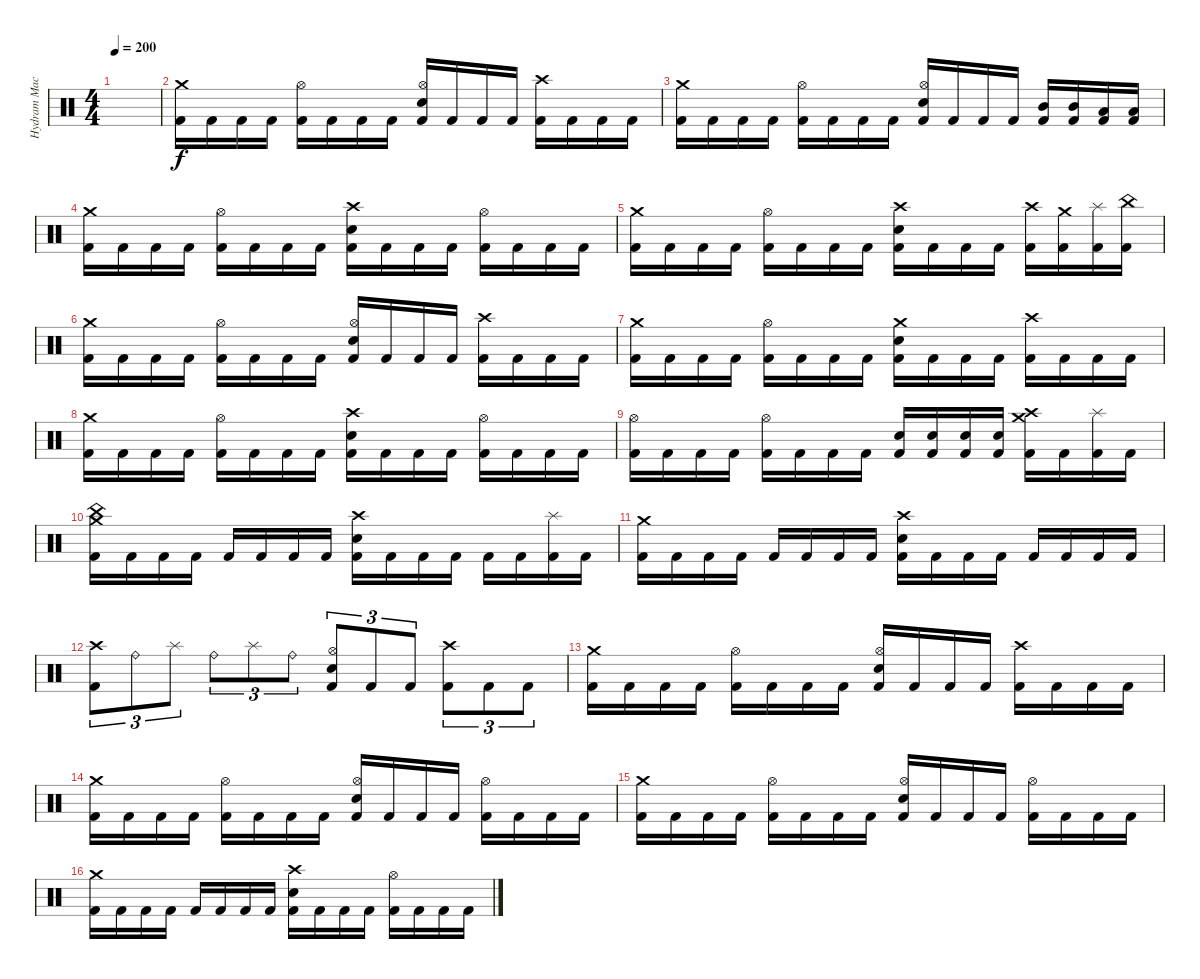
\track ("Hydram Machine" "Hydram Mac") {instrument percussion}
\staff {score}
\articulation defaults
\ts (4 4)
\tempo 200
\clef neutral
\ks c
|
("Crash medium (hit)" "Kick (hit) 2").16 "Kick (hit) 2".16 "Kick (hit) 2".16 "Kick (hit) 2".16 ("Hi-Hat (open)" "Kick (hit) 2").16 "Kick (hit) 2".16 "Kick (hit) 2".16 "Kick (hit) 2".16 ("Hi-Hat (open)" "Electric Snare (hit)" "Kick (hit) 2").16 "Kick (hit) 2".16 "Kick (hit) 2".16 "Kick (hit) 2".16 ("Crash high (hit)" "Kick (hit) 2").16 "Kick (hit) 2".16 "Kick (hit) 2".16 "Kick (hit) 2".16 |
("Crash medium (hit)" "Kick (hit) 2").16 "Kick (hit) 2".16 "Kick (hit) 2".16 "Kick (hit) 2".16 ("Hi-Hat (open)" "Kick (hit) 2").16 "Kick (hit) 2".16 "Kick (hit) 2".16 "Kick (hit) 2".16 ("Hi-Hat (open)" "Electric Snare (hit)" "Kick (hit) 2").16 "Kick (hit) 2".16 "Kick (hit) 2".16 "Kick (hit) 2".16 ("Mid Tom (hit)" "Kick (hit) 2").16 ("Mid Tom (hit)" "Kick (hit) 2").16 ("Low Tom (hit)" "Kick (hit) 2").16 ("Low Tom (hit)" "Kick (hit) 2").16 |
("Crash medium (hit)" "Kick (hit) 2").16 "Kick (hit) 2".16 "Kick (hit) 2".16 "Kick (hit) 2".16 ("Hi-Hat (open)" "Kick (hit) 2").16 "Kick (hit) 2".16 "Kick (hit) 2".16 "Kick (hit) 2".16 ("Crash high (hit)" "Electric Snare (hit)" "Kick (hit) 2").16 "Kick (hit) 2".16 "Kick (hit) 2".16 "Kick (hit) 2".16 ("Hi-Hat (open)" "Kick (hit) 2").16 "Kick (hit) 2".16 "Kick (hit) 2".16 "Kick (hit) 2".16 |
("Crash medium (hit)" "Kick (hit) 2").16 "Kick (hit) 2".16 "Kick (hit) 2".16 "Kick (hit) 2".16 ("Hi-Hat (open)" "Kick (hit) 2").16 "Kick (hit) 2".16 "Kick (hit) 2".16 "Kick (hit) 2".16 ("Crash high (hit)" "Electric Snare (hit)" "Kick (hit) 2").16 "Kick (hit) 2".16 "Kick (hit) 2".16 "Kick (hit) 2".16 ("Crash high (hit)" "Kick (hit) 2").16 ("Crash medium (hit)" "Kick (hit) 2").16 ("Splash (hit)" "Kick (hit) 2").16 ("China (hit)" "Kick (hit) 2").16 |
("Crash medium (hit)" "Kick (hit) 2").16 "Kick (hit) 2".16 "Kick (hit) 2".16 "Kick (hit) 2".16 ("Hi-Hat (open)" "Kick (hit) 2").16 "Kick (hit) 2".16 "Kick (hit) 2".16 "Kick (hit) 2".16 ("Hi-Hat (open)" "Electric Snare (hit)" "Kick (hit) 2").16 "Kick (hit) 2".16 "Kick (hit) 2".16 "Kick (hit) 2".16 ("Crash high (hit)" "Kick (hit) 2").16 "Kick (hit) 2".16 "Kick (hit) 2".16 "Kick (hit) 2".16 |
("Crash medium (hit)" "Kick (hit) 2").16 "Kick (hit) 2".16 "Kick (hit) 2".16 "Kick (hit) 2".16 ("Hi-Hat (open)" "Kick (hit) 2").16 "Kick (hit) 2".16 "Kick (hit) 2".16 "Kick (hit) 2".16 ("Crash medium (hit)" "Electric Snare (hit)" "Kick (hit) 2").16 "Kick (hit) 2".16 "Kick (hit) 2".16 "Kick (hit) 2".16 ("Crash high (hit)" "Kick (hit) 2").16 "Kick (hit) 2".16 "Kick (hit) 2".16 "Kick (hit) 2".16 |
("Crash medium (hit)" "Kick (hit) 2").16 "Kick (hit) 2".16 "Kick (hit) 2".16 "Kick (hit) 2".16 ("Hi-Hat (open)" "Kick (hit) 2").16 "Kick (hit) 2".16 "Kick (hit) 2".16 "Kick (hit) 2".16 ("Crash high (hit)" "Electric Snare (hit)" "Kick (hit) 2").16 "Kick (hit) 2".16 "Kick (hit) 2".16 "Kick (hit) 2".16 ("Hi-Hat (open)" "Kick (hit) 2").16 "Kick (hit) 2".16 "Kick (hit) 2".16 "Kick (hit) 2".16 |
("Hi-Hat (open)" "Kick (hit) 2").16 "Kick (hit) 2".16 "Kick (hit) 2".16 "Kick (hit) 2".16 ("Hi-Hat (open)" "Kick (hit) 2").16 "Kick (hit) 2".16 "Kick (hit) 2".16 "Kick (hit) 2".16 ("Electric Snare (hit)" "Kick (hit) 2").16 ("Electric Snare (hit)" "Kick (hit) 2").16 ("Electric Snare (hit)" "Kick (hit) 2").16 ("Electric Snare (hit)" "Kick (hit) 2").16 ("Crash high (hit)" "Crash medium (hit)" "Kick (hit) 2").16 "Kick (hit) 2".16 ("Splash (hit)" "Kick (hit) 2").16 "Kick (hit) 2".16 |
("Crash medium (hit)" "China (hit)" "Kick (hit) 2").16 "Kick (hit) 2".16 "Kick (hit) 2".16 "Kick (hit) 2".16 "Kick (hit) 2".16 "Kick (hit) 2".16 "Kick (hit) 2".16 "Kick (hit) 2".16 ("Crash high (hit)" "Electric Snare (hit)" "Kick (hit) 2").16 "Kick (hit) 2".16 "Kick (hit) 2".16 "Kick (hit) 2".16 "Kick (hit) 2".16 "Kick (hit) 2".16 ("Splash (hit)" "Kick (hit) 2").16 "Kick (hit) 2".16 |
("Crash medium (hit)" "Kick (hit) 2").16 "Kick (hit) 2".16 "Kick (hit) 2".16 "Kick (hit) 2".16 "Kick (hit) 2".16 "Kick (hit) 2".16 "Kick (hit) 2".16 "Kick (hit) 2".16 ("Crash high (hit)" "Electric Snare (hit)" "Kick (hit) 2").16 "Kick (hit) 2".16 "Kick (hit) 2".16 "Kick (hit) 2".16 "Kick (hit) 2".16 "Kick (hit) 2".16 "Kick (hit) 2".16 "Kick (hit) 2".16 |
("Crash high (hit)" "Kick (hit) 2").8{tu (3 2)} "Ride (bell)".8{tu (3 2)} "Splash (hit)".8{tu (3 2)} "Ride (bell)".8{tu (3 2)} "Splash (hit)".8{tu (3 2)} "Ride (bell)".8{tu (3 2)} ("Hi-Hat (open)" "Electric Snare (hit)" "Kick (hit) 2").8{tu (3 2)} "Kick (hit) 2".8{tu (3 2)} "Kick (hit) 2".8{tu (3 2)} ("Crash high (hit)" "Kick (hit) 2").8{tu (3 2)} "Kick (hit) 2".8{tu (3 2)} "Kick (hit) 2".8{tu (3 2)} |
("Crash medium (hit)" "Kick (hit) 2").16 "Kick (hit) 2".16 "Kick (hit) 2".16 "Kick (hit) 2".16 ("Hi-Hat (open)" "Kick (hit) 2").16 "Kick (hit) 2".16 "Kick (hit) 2".16 "Kick (hit) 2".16 ("Hi-Hat (open)" "Electric Snare (hit)" "Kick (hit) 2").16 "Kick (hit) 2".16 "Kick (hit) 2".16 "Kick (hit) 2".16 ("Crash high (hit)" "Kick (hit) 2").16 "Kick (hit) 2".16 "Kick (hit) 2".16 "Kick (hit) 2".16 |
("Crash medium (hit)" "Kick (hit) 2").16 "Kick (hit) 2".16 "Kick (hit) 2".16 "Kick (hit) 2".16 ("Hi-Hat (open)" "Kick (hit) 2").16 "Kick (hit) 2".16 "Kick (hit) 2".16 "Kick (hit) 2".16 ("Hi-Hat (open)" "Electric Snare (hit)" "Kick (hit) 2").16 "Kick (hit) 2".16 "Kick (hit) 2".16 "Kick (hit) 2".16 ("Hi-Hat (open)" "Kick (hit) 2").16 "Kick (hit) 2".16 "Kick (hit) 2".16 "Kick (hit) 2".16 |
("Crash medium (hit)" "Kick (hit) 2").16 "Kick (hit) 2".16 "Kick (hit) 2".16 "Kick (hit) 2".16 ("Hi-Hat (open)" "Kick (hit) 2").16 "Kick (hit) 2".16 "Kick (hit) 2".16 "Kick (hit) 2".16 ("Hi-Hat (open)" "Electric Snare (hit)" "Kick (hit) 2").16 "Kick (hit) 2".16 "Kick (hit) 2".16 "Kick (hit) 2".16 ("Hi-Hat (open)" "Kick (hit) 2").16 "Kick (hit) 2".16 "Kick (hit) 2".16 "Kick (hit) 2".16 |
("Crash medium (hit)" "Kick (hit) 2").16 "Kick (hit) 2".16 "Kick (hit) 2".16 "Kick (hit) 2".16 "Kick (hit) 2".16 "Kick (hit) 2".16 "Kick (hit) 2".16 "Kick (hit) 2".16 ("Crash high (hit)" "Electric Snare (hit)" "Kick (hit) 2").16 "Kick (hit) 2".16 "Kick (hit) 2".16 "Kick (hit) 2".16 ("Hi-Hat (open)" "Kick (hit) 2").16 "Kick (hit) 2".16 "Kick (hit) 2".16 "Kick (hit) 2".16
